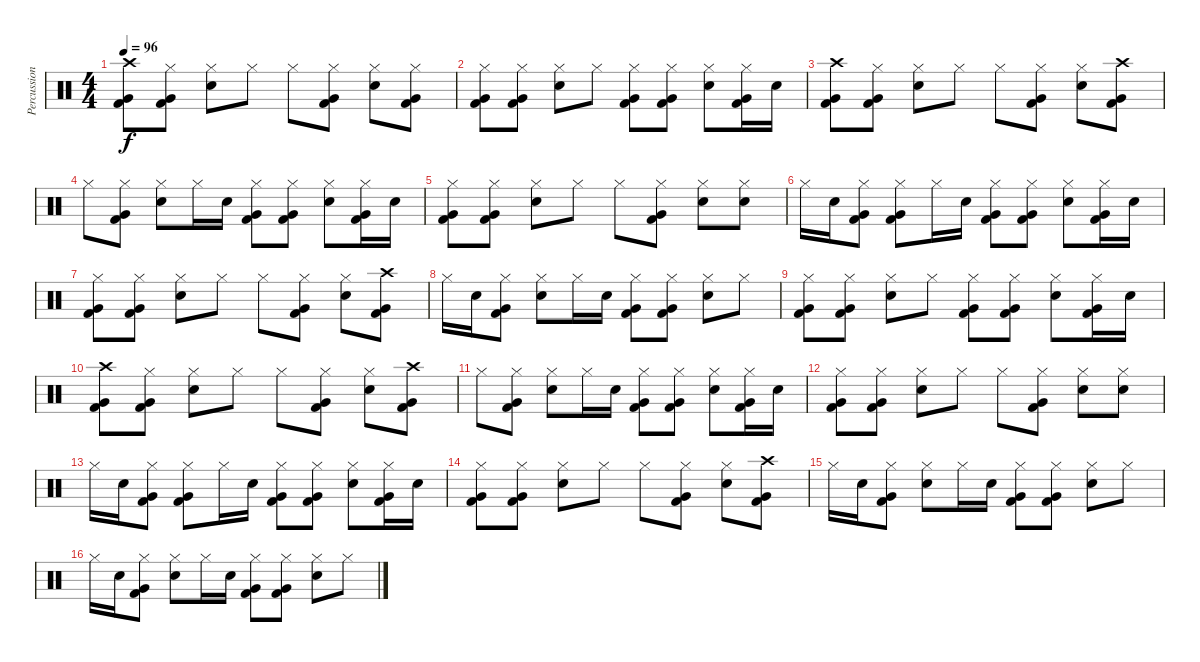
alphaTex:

\track ("Percussion" "Percussion") {instrument percussion}
\staff {score}
\articulation defaults
\ts (4 4)
\tempo 96
\clef neutral
\ks c
("Crash high (hit)" "Very Low Tom (hit)" "Kick (hit) 2").8{dy f} ("Hi-Hat (closed)" "Very Low Tom (hit)" "Kick (hit) 2").8 ("Hi-Hat (closed)" "Electric Snare (hit)").8 "Hi-Hat (closed)".8 "Hi-Hat (closed)".8 ("Hi-Hat (closed)" "Very Low Tom (hit)" "Kick (hit) 2").8 ("Hi-Hat (closed)" "Electric Snare (hit)").8 ("Hi-Hat (closed)" "Very Low Tom (hit)" "Kick (hit) 2").8 |
("Hi-Hat (closed)" "Very Low Tom (hit)" "Kick (hit) 2").8 ("Hi-Hat (closed)" "Very Low Tom (hit)" "Kick (hit) 2").8 ("Hi-Hat (closed)" "Electric Snare (hit)").8 "Hi-Hat (closed)".8 ("Hi-Hat (closed)" "Very Low Tom (hit)" "Kick (hit) 2").8 ("Hi-Hat (closed)" "Very Low Tom (hit)" "Kick (hit) 2").8 ("Hi-Hat (closed)" "Electric Snare (hit)").8 ("Hi-Hat (closed)" "Very Low Tom (hit)" "Kick (hit) 2").16 "Electric Snare (hit)".16 |
("Crash high (hit)" "Very Low Tom (hit)" "Kick (hit) 2").8 ("Hi-Hat (closed)" "Very Low Tom (hit)" "Kick (hit) 2").8 ("Hi-Hat (closed)" "Electric Snare (hit)").8 "Hi-Hat (closed)".8 "Hi-Hat (closed)".8 ("Hi-Hat (closed)" "Very Low Tom (hit)" "Kick (hit) 2").8 ("Hi-Hat (closed)" "Electric Snare (hit)").8 ("Crash high (hit)" "Very Low Tom (hit)" "Kick (hit) 2").8 |
"Hi-Hat (closed)".8 ("Hi-Hat (closed)" "Very Low Tom (hit)" "Kick (hit) 2").8 ("Hi-Hat (closed)" "Electric Snare (hit)").8 "Hi-Hat (closed)".16 "Electric Snare (hit)".16 ("Hi-Hat (closed)" "Very Low Tom (hit)" "Kick (hit) 2").8 ("Hi-Hat (closed)" "Very Low Tom (hit)" "Kick (hit) 2").8 ("Hi-Hat (closed)" "Electric Snare (hit)").8 ("Hi-Hat (closed)" "Very Low Tom (hit)" "Kick (hit) 2").16 "Electric Snare (hit)".16 |
("Hi-Hat (closed)" "Very Low Tom (hit)" "Kick (hit) 2").8 ("Hi-Hat (closed)" "Very Low Tom (hit)" "Kick (hit) 2").8 ("Hi-Hat (closed)" "Electric Snare (hit)").8 "Hi-Hat (closed)".8 "Hi-Hat (closed)".8 ("Hi-Hat (closed)" "Very Low Tom (hit)" "Kick (hit) 2").8 ("Hi-Hat (closed)" "Electric Snare (hit)").8 ("Hi-Hat (closed)" "Electric Snare (hit)").8 |
"Hi-Hat (closed)".16 "Electric Snare (hit)".16 ("Hi-Hat (closed)" "Very Low Tom (hit)" "Kick (hit) 2").8 ("Hi-Hat (closed)" "Very Low Tom (hit)" "Kick (hit) 2").8 "Hi-Hat (closed)".16 "Electric Snare (hit)".16 ("Hi-Hat (closed)" "Very Low Tom (hit)" "Kick (hit) 2").8 ("Hi-Hat (closed)" "Very Low Tom (hit)" "Kick (hit) 2").8 ("Hi-Hat (closed)" "Electric Snare (hit)").8 ("Hi-Hat (closed)" "Very Low Tom (hit)" "Kick (hit) 2").16 "Electric Snare (hit)".16 |
("Hi-Hat (closed)" "Very Low Tom (hit)" "Kick (hit) 2").8 ("Hi-Hat (closed)" "Very Low Tom (hit)" "Kick (hit) 2").8 ("Hi-Hat (closed)" "Electric Snare (hit)").8 "Hi-Hat (closed)".8 "Hi-Hat (closed)".8 ("Hi-Hat (closed)" "Very Low Tom (hit)" "Kick (hit) 2").8 ("Hi-Hat (closed)" "Electric Snare (hit)").8 ("Crash high (hit)" "Very Low Tom (hit)" "Kick (hit) 2").8 |
"Hi-Hat (closed)".16 "Electric Snare (hit)".16 ("Hi-Hat (closed)" "Very Low Tom (hit)" "Kick (hit) 2").8 ("Hi-Hat (closed)" "Electric Snare (hit)").8 "Hi-Hat (closed)".16 "Electric Snare (hit)".16 ("Hi-Hat (closed)" "Very Low Tom (hit)" "Kick (hit) 2").8 ("Hi-Hat (closed)" "Very Low Tom (hit)" "Kick (hit) 2").8 ("Hi-Hat (closed)" "Electric Snare (hit)").8 "Hi-Hat (closed)".8 |
("Hi-Hat (closed)" "Very Low Tom (hit)" "Kick (hit) 2").8 ("Hi-Hat (closed)" "Very Low Tom (hit)" "Kick (hit) 2").8 ("Hi-Hat (closed)" "Electric Snare (hit)").8 "Hi-Hat (closed)".8 ("Hi-Hat (closed)" "Very Low Tom (hit)" "Kick (hit) 2").8 ("Hi-Hat (closed)" "Very Low Tom (hit)" "Kick (hit) 2").8 ("Hi-Hat (closed)" "Electric Snare (hit)").8 ("Hi-Hat (closed)" "Very Low Tom (hit)" "Kick (hit) 2").16 "Electric Snare (hit)".16 |
("Crash high (hit)" "Very Low Tom (hit)" "Kick (hit) 2").8 ("Hi-Hat (closed)" "Very Low Tom (hit)" "Kick (hit) 2").8 ("Hi-Hat (closed)" "Electric Snare (hit)").8 "Hi-Hat (closed)".8 "Hi-Hat (closed)".8 ("Hi-Hat (closed)" "Very Low Tom (hit)" "Kick (hit) 2").8 ("Hi-Hat (closed)" "Electric Snare (hit)").8 ("Crash high (hit)" "Very Low Tom (hit)" "Kick (hit) 2").8 |
"Hi-Hat (closed)".8 ("Hi-Hat (closed)" "Very Low Tom (hit)" "Kick (hit) 2").8 ("Hi-Hat (closed)" "Electric Snare (hit)").8 "Hi-Hat (closed)".16 "Electric Snare (hit)".16 ("Hi-Hat (closed)" "Very Low Tom (hit)" "Kick (hit) 2").8 ("Hi-Hat (closed)" "Very Low Tom (hit)" "Kick (hit) 2").8 ("Hi-Hat (closed)" "Electric Snare (hit)").8 ("Hi-Hat (closed)" "Very Low Tom (hit)" "Kick (hit) 2").16 "Electric Snare (hit)".16 |
("Hi-Hat (closed)" "Very Low Tom (hit)" "Kick (hit) 2").8 ("Hi-Hat (closed)" "Very Low Tom (hit)" "Kick (hit) 2").8 ("Hi-Hat (closed)" "Electric Snare (hit)").8 "Hi-Hat (closed)".8 "Hi-Hat (closed)".8 ("Hi-Hat (closed)" "Very Low Tom (hit)" "Kick (hit) 2").8 ("Hi-Hat (closed)" "Electric Snare (hit)").8 ("Hi-Hat (closed)" "Electric Snare (hit)").8 |
"Hi-Hat (closed)".16 "Electric Snare (hit)".16 ("Hi-Hat (closed)" "Very Low Tom (hit)" "Kick (hit) 2").8 ("Hi-Hat (closed)" "Very Low Tom (hit)" "Kick (hit) 2").8 "Hi-Hat (closed)".16 "Electric Snare (hit)".16 ("Hi-Hat (closed)" "Very Low Tom (hit)" "Kick (hit) 2").8 ("Hi-Hat (closed)" "Very Low Tom (hit)" "Kick (hit) 2").8 ("Hi-Hat (closed)" "Electric Snare (hit)").8 ("Hi-Hat (closed)" "Very Low Tom (hit)" "Kick (hit) 2").16 "Electric Snare (hit)".16 |
("Hi-Hat (closed)" "Very Low Tom (hit)" "Kick (hit) 2").8 ("Hi-Hat (closed)" "Very Low Tom (hit)" "Kick (hit) 2").8 ("Hi-Hat (closed)" "Electric Snare (hit)").8 "Hi-Hat (closed)".8 "Hi-Hat (closed)".8 ("Hi-Hat (closed)" "Very Low Tom (hit)" "Kick (hit) 2").8 ("Hi-Hat (closed)" "Electric Snare (hit)").8 ("Crash high (hit)" "Very Low Tom (hit)" "Kick (hit) 2").8 |
"Hi-Hat (closed)".16 "Electric Snare (hit)".16 ("Hi-Hat (closed)" "Very Low Tom (hit)" "Kick (hit) 2").8 ("Hi-Hat (closed)" "Electric Snare (hit)").8 "Hi-Hat (closed)".16 "Electric Snare (hit)".16 ("Hi-Hat (closed)" "Very Low Tom (hit)" "Kick (hit) 2").8 ("Hi-Hat (closed)" "Very Low Tom (hit)" "Kick (hit) 2").8 ("Hi-Hat (closed)" "Electric Snare (hit)").8 "Hi-Hat (closed)".8 |
"Hi-Hat (closed)".16 "Electric Snare (hit)".16 ("Hi-Hat (closed)" "Very Low Tom (hit)" "Kick (hit) 2").8 ("Hi-Hat (closed)" "Electric Snare (hit)").8 "Hi-Hat (closed)".16 "Electric Snare (hit)".16 ("Hi-Hat (closed)" "Very Low Tom (hit)" "Kick (hit) 2").8 ("Hi-Hat (closed)" "Very Low Tom (hit)" "Kick (hit) 2").8 ("Hi-Hat (closed)" "Electric Snare (hit)").8 "Hi-Hat (closed)".8
